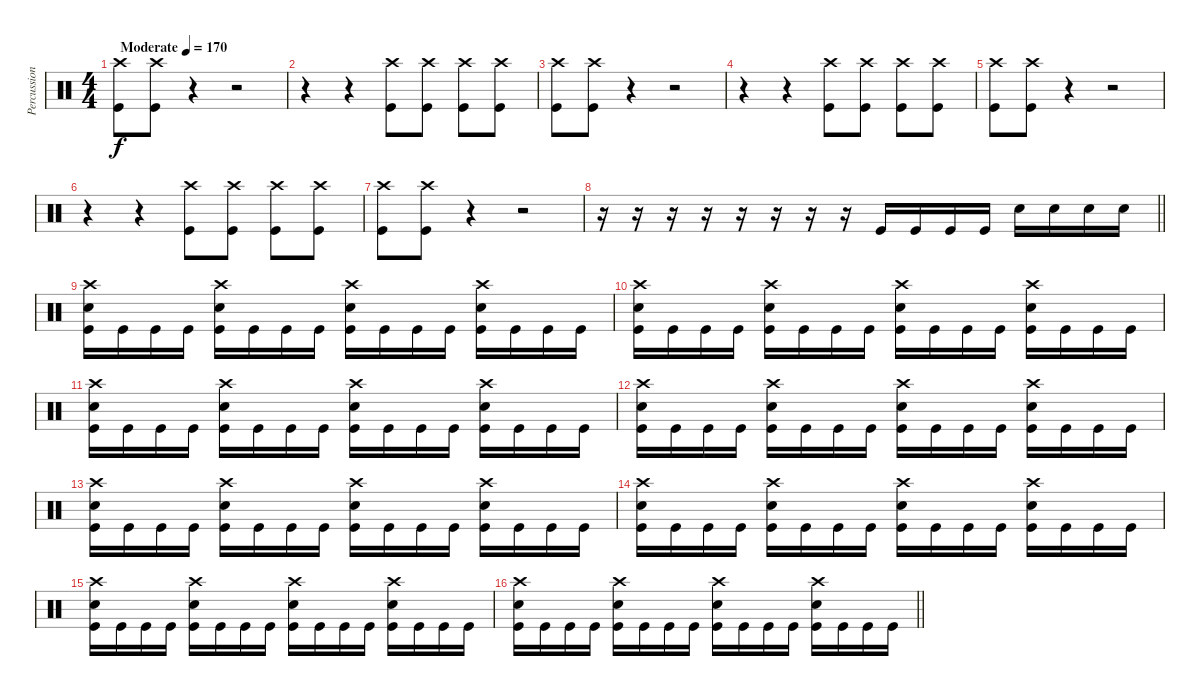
\track ("Percussion" "Percussion") {instrument percussion}
\staff {score}
\articulation defaults
\ts (4 4)
\tempo (170 "Moderate")
\clef neutral
\ks c
("Crash high (hit)" "Kick (hit)").8{dy f} ("Crash high (hit)" "Kick (hit)").8 r.4 r.2 |
r.4 r.4 ("Crash high (hit)" "Kick (hit)").8 ("Crash high (hit)" "Kick (hit)").8 ("Crash high (hit)" "Kick (hit)").8 ("Crash high (hit)" "Kick (hit)").8 |
("Crash high (hit)" "Kick (hit)").8 ("Crash high (hit)" "Kick (hit)").8 r.4 r.2 |
r.4 r.4 ("Crash high (hit)" "Kick (hit)").8 ("Crash high (hit)" "Kick (hit)").8 ("Crash high (hit)" "Kick (hit)").8 ("Crash high (hit)" "Kick (hit)").8 |
("Crash high (hit)" "Kick (hit)").8 ("Crash high (hit)" "Kick (hit)").8 r.4 r.2 |
r.4 r.4 ("Crash high (hit)" "Kick (hit)").8 ("Crash high (hit)" "Kick (hit)").8 ("Crash high (hit)" "Kick (hit)").8 ("Crash high (hit)" "Kick (hit)").8 |
("Crash high (hit)" "Kick (hit)").8 ("Crash high (hit)" "Kick (hit)").8 r.4 r.2 |
\barLineRight lightlight
r.16 r.16 r.16 r.16 r.16 r.16 r.16 r.16 "Kick (hit)".16 "Kick (hit)".16 "Kick (hit)".16 "Kick (hit)".16 "Snare (hit) 2".16 "Snare (hit) 2".16 "Snare (hit) 2".16 "Snare (hit) 2".16 |
("Crash high (hit)" "Snare (hit) 2" "Kick (hit)").16 "Kick (hit)".16 "Kick (hit)".16 "Kick (hit)".16 ("Crash high (hit)" "Snare (hit) 2" "Kick (hit)").16 "Kick (hit)".16 "Kick (hit)".16 "Kick (hit)".16 ("Crash high (hit)" "Snare (hit) 2" "Kick (hit)").16 "Kick (hit)".16 "Kick (hit)".16 "Kick (hit)".16 ("Crash high (hit)" "Snare (hit) 2" "Kick (hit)").16 "Kick (hit)".16 "Kick (hit)".16 "Kick (hit)".16 |
("Crash high (hit)" "Snare (hit) 2" "Kick (hit)").16 "Kick (hit)".16 "Kick (hit)".16 "Kick (hit)".16 ("Crash high (hit)" "Snare (hit) 2" "Kick (hit)").16 "Kick (hit)".16 "Kick (hit)".16 "Kick (hit)".16 ("Crash high (hit)" "Snare (hit) 2" "Kick (hit)").16 "Kick (hit)".16 "Kick (hit)".16 "Kick (hit)".16 ("Crash high (hit)" "Snare (hit) 2" "Kick (hit)").16 "Kick (hit)".16 "Kick (hit)".16 "Kick (hit)".16 |
("Crash high (hit)" "Snare (hit) 2" "Kick (hit)").16 "Kick (hit)".16 "Kick (hit)".16 "Kick (hit)".16 ("Crash high (hit)" "Snare (hit) 2" "Kick (hit)").16 "Kick (hit)".16 "Kick (hit)".16 "Kick (hit)".16 ("Crash high (hit)" "Snare (hit) 2" "Kick (hit)").16 "Kick (hit)".16 "Kick (hit)".16 "Kick (hit)".16 ("Crash high (hit)" "Snare (hit) 2" "Kick (hit)").16 "Kick (hit)".16 "Kick (hit)".16 "Kick (hit)".16 |
("Crash high (hit)" "Snare (hit) 2" "Kick (hit)").16 "Kick (hit)".16 "Kick (hit)".16 "Kick (hit)".16 ("Crash high (hit)" "Snare (hit) 2" "Kick (hit)").16 "Kick (hit)".16 "Kick (hit)".16 "Kick (hit)".16 ("Crash high (hit)" "Snare (hit) 2" "Kick (hit)").16 "Kick (hit)".16 "Kick (hit)".16 "Kick (hit)".16 ("Crash high (hit)" "Snare (hit) 2" "Kick (hit)").16 "Kick (hit)".16 "Kick (hit)".16 "Kick (hit)".16 |
("Crash high (hit)" "Snare (hit) 2" "Kick (hit)").16 "Kick (hit)".16 "Kick (hit)".16 "Kick (hit)".16 ("Crash high (hit)" "Snare (hit) 2" "Kick (hit)").16 "Kick (hit)".16 "Kick (hit)".16 "Kick (hit)".16 ("Crash high (hit)" "Snare (hit) 2" "Kick (hit)").16 "Kick (hit)".16 "Kick (hit)".16 "Kick (hit)".16 ("Crash high (hit)" "Snare (hit) 2" "Kick (hit)").16 "Kick (hit)".16 "Kick (hit)".16 "Kick (hit)".16 |
("Crash high (hit)" "Snare (hit) 2" "Kick (hit)").16 "Kick (hit)".16 "Kick (hit)".16 "Kick (hit)".16 ("Crash high (hit)" "Snare (hit) 2" "Kick (hit)").16 "Kick (hit)".16 "Kick (hit)".16 "Kick (hit)".16 ("Crash high (hit)" "Snare (hit) 2" "Kick (hit)").16 "Kick (hit)".16 "Kick (hit)".16 "Kick (hit)".16 ("Crash high (hit)" "Snare (hit) 2" "Kick (hit)").16 "Kick (hit)".16 "Kick (hit)".16 "Kick (hit)".16 |
("Crash high (hit)" "Snare (hit) 2" "Kick (hit)").16 "Kick (hit)".16 "Kick (hit)".16 "Kick (hit)".16 ("Crash high (hit)" "Snare (hit) 2" "Kick (hit)").16 "Kick (hit)".16 "Kick (hit)".16 "Kick (hit)".16 ("Crash high (hit)" "Snare (hit) 2" "Kick (hit)").16 "Kick (hit)".16 "Kick (hit)".16 "Kick (hit)".16 ("Crash high (hit)" "Snare (hit) 2" "Kick (hit)").16 "Kick (hit)".16 "Kick (hit)".16 "Kick (hit)".16 |
\barLineRight lightlight
("Crash high (hit)" "Snare (hit) 2" "Kick (hit)").16 "Kick (hit)".16 "Kick (hit)".16 "Kick (hit)".16 ("Crash high (hit)" "Snare (hit) 2" "Kick (hit)").16 "Kick (hit)".16 "Kick (hit)".16 "Kick (hit)".16 ("Crash high (hit)" "Snare (hit) 2" "Kick (hit)").16 "Kick (hit)".16 "Kick (hit)".16 "Kick (hit)".16 ("Crash high (hit)" "Snare (hit) 2" "Kick (hit)").16 "Kick (hit)".16 "Kick (hit)".16 "Kick (hit)".16
